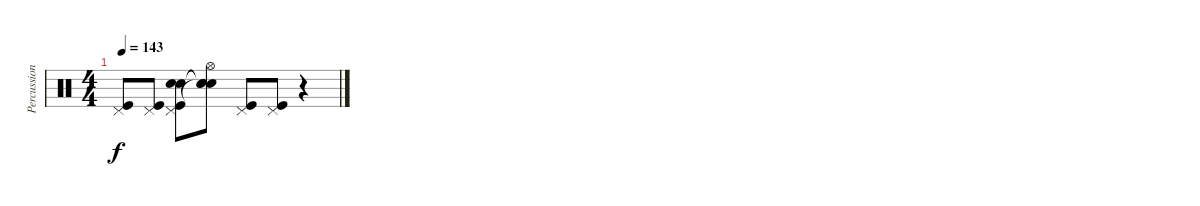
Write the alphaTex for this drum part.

\track ("Percussions" "Percussion") {instrument percussion}
\staff {score}
\articulation defaults
\ts (4 4)
\tempo 143
\clef neutral
\ks c
("Pedal Hi-Hat (hit)" "Kick (hit)").8{dy f} ("Pedal Hi-Hat (hit)" "Kick (hit)").8 ("Pedal Hi-Hat (hit)" "Snare (hit) 2" "Snare (hit) 2" "Kick (hit)").8 ("Hi-Hat (open)" "Snare (hit)"{t} "Snare (hit)"{t} "Snare (hit)"{t}).8 ("Pedal Hi-Hat (hit)" "Kick (hit)").8 ("Pedal Hi-Hat (hit)" "Kick (hit)").8 r.4
